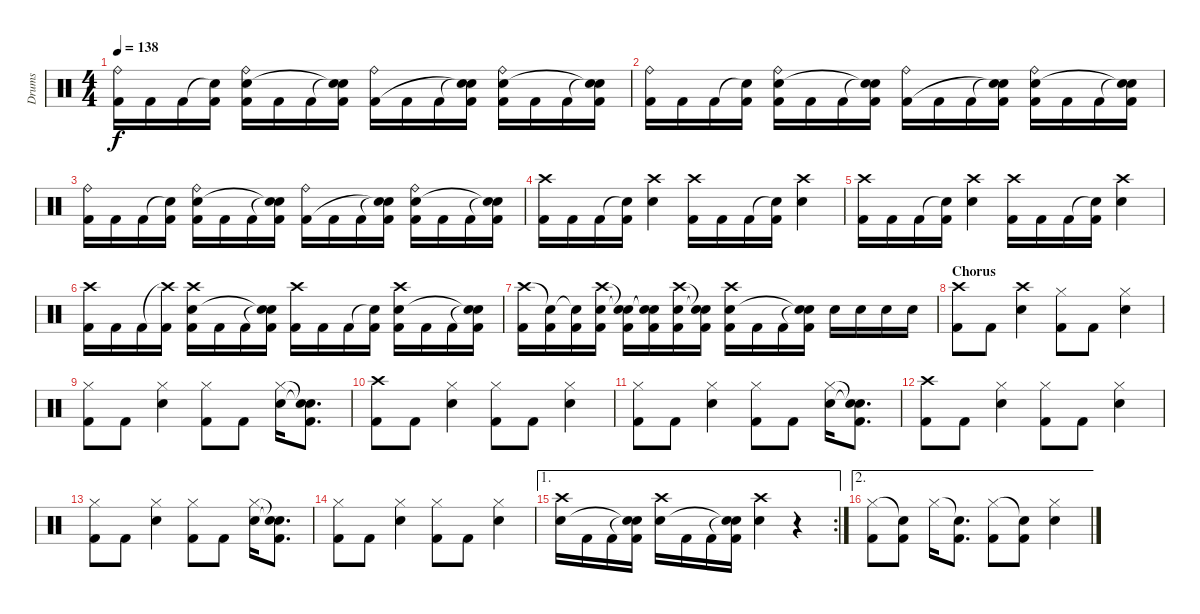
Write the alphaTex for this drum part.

\track ("Drums" "Drums") {instrument percussion}
\staff {score}
\articulation defaults
\ts (4 4)
\tempo 138
\clef neutral
\ks c
("Ride (bell)" "Kick (hit) 2").16{dy f} "Kick (hit) 2".16 "Kick (hit) 2".16 ("Snare (hit)"{t} "Kick (hit) 2").16 ("Ride (bell)" "Snare (hit) 2" "Kick (hit) 2").16 "Kick (hit) 2".16 "Kick (hit) 2".16 ("Snare (hit)"{t} "Snare (hit)"{t} "Kick (hit) 2").16 ("Ride (bell)" "Kick (hit) 2").16 "Kick (hit) 2".16 "Kick (hit) 2".16 ("Snare (hit)"{t} "Snare (hit)"{t} "Kick (hit) 2").16 ("Ride (bell)" "Snare (hit) 2" "Kick (hit) 2").16 "Kick (hit) 2".16 "Kick (hit) 2".16 ("Snare (hit)"{t} "Snare (hit)"{t} "Kick (hit) 2").16 |
("Ride (bell)" "Kick (hit) 2").16 "Kick (hit) 2".16 "Kick (hit) 2".16 ("Snare (hit)"{t} "Kick (hit) 2").16 ("Ride (bell)" "Snare (hit) 2" "Kick (hit) 2").16 "Kick (hit) 2".16 "Kick (hit) 2".16 ("Snare (hit)"{t} "Snare (hit)"{t} "Kick (hit) 2").16 ("Ride (bell)" "Kick (hit) 2").16 "Kick (hit) 2".16 "Kick (hit) 2".16 ("Snare (hit)"{t} "Snare (hit)"{t} "Kick (hit) 2").16 ("Ride (bell)" "Snare (hit) 2" "Kick (hit) 2").16 "Kick (hit) 2".16 "Kick (hit) 2".16 ("Snare (hit)"{t} "Snare (hit)"{t} "Kick (hit) 2").16 |
("Ride (bell)" "Kick (hit) 2").16 "Kick (hit) 2".16 "Kick (hit) 2".16 ("Snare (hit)"{t} "Kick (hit) 2").16 ("Ride (bell)" "Snare (hit) 2" "Kick (hit) 2").16 "Kick (hit) 2".16 "Kick (hit) 2".16 ("Snare (hit)"{t} "Snare (hit)"{t} "Kick (hit) 2").16 ("Ride (bell)" "Kick (hit) 2").16 "Kick (hit) 2".16 "Kick (hit) 2".16 ("Snare (hit)"{t} "Snare (hit)"{t} "Kick (hit) 2").16 ("Ride (bell)" "Snare (hit) 2" "Kick (hit) 2").16 "Kick (hit) 2".16 "Kick (hit) 2".16 ("Snare (hit)"{t} "Snare (hit)"{t} "Kick (hit) 2").16 |
("Crash high (hit)" "Kick (hit) 2").16 "Kick (hit) 2".16 "Kick (hit) 2".16 ("Snare (hit)"{t} "Kick (hit) 2").16 ("Crash high (hit)" "Snare (hit) 2").4 ("Crash high (hit)" "Kick (hit) 2").16 "Kick (hit) 2".16 "Kick (hit) 2".16 ("Snare (hit)"{t} "Kick (hit) 2").16 ("Crash high (hit)" "Snare (hit) 2").4 |
("Crash high (hit)" "Kick (hit) 2").16 "Kick (hit) 2".16 "Kick (hit) 2".16 ("Snare (hit)"{t} "Kick (hit) 2").16 ("Crash high (hit)" "Snare (hit) 2").4 ("Crash high (hit)" "Kick (hit) 2").16 "Kick (hit) 2".16 "Kick (hit) 2".16 ("Snare (hit)"{t} "Kick (hit) 2").16 ("Crash high (hit)" "Snare (hit) 2").4 |
("Crash high (hit)" "Kick (hit) 2").16 "Kick (hit) 2".16 "Kick (hit) 2".16 ("Crash high (hit)"{t} "Kick (hit) 2").16 ("Crash high (hit)" "Snare (hit) 2" "Kick (hit) 2").16 "Kick (hit) 2".16 "Kick (hit) 2".16 ("Snare (hit)"{t} "Snare (hit)"{t} "Kick (hit) 2").16 ("Crash high (hit)" "Kick (hit) 2").16 "Kick (hit) 2".16 "Kick (hit) 2".16 ("Snare (hit)"{t} "Kick (hit) 2").16 ("Crash high (hit)" "Snare (hit) 2" "Kick (hit) 2").16 "Kick (hit) 2".16 "Kick (hit) 2".16 ("Snare (hit)"{t} "Snare (hit)"{t} "Kick (hit) 2").16 |
("Crash high (hit)" "Kick (hit) 2").16 ("Snare (hit)"{t} "Kick (hit) 2").16 ("Snare (hit)"{t} "Kick (hit) 2").16 ("Crash high (hit)" "Snare (hit) 2" "Kick (hit) 2").16 ("Snare (hit)"{t} "Snare (hit)"{t} "Kick (hit) 2").16 ("Snare (hit)"{t} "Snare (hit)"{t} "Kick (hit) 2").16 ("Crash high (hit)" "Snare (hit) 2" "Kick (hit) 2").16 ("Snare (hit)"{t} "Snare (hit)"{t} "Kick (hit) 2").16 ("Crash high (hit)" "Snare (hit) 2" "Kick (hit) 2").16 "Kick (hit) 2".16 "Kick (hit) 2".16 ("Snare (hit)"{t} "Snare (hit)"{t} "Kick (hit) 2").16 "Snare (hit) 2".16 "Snare (hit) 2".16 "Snare (hit) 2".16 "Snare (hit) 2".16 |
\section ("" "Chorus")
("Crash high (hit)" "Kick (hit) 2").8 "Kick (hit) 2".8 ("Crash high (hit)" "Snare (hit) 2").4 ("Hi-Hat (closed)" "Kick (hit) 2").8 "Kick (hit) 2".8 ("Hi-Hat (closed)" "Snare (hit) 2").4 |
("Hi-Hat (closed)" "Kick (hit) 2").8 "Kick (hit) 2".8 ("Hi-Hat (closed)" "Snare (hit) 2").4 ("Hi-Hat (closed)" "Kick (hit) 2").8 "Kick (hit) 2".8 ("Hi-Hat (closed)" "Snare (hit) 2").16 ("Snare (hit)"{t} "Snare (hit)"{t} "Kick (hit) 2").8{d} |
("Crash high (hit)" "Kick (hit) 2").8 "Kick (hit) 2".8 ("Hi-Hat (closed)" "Snare (hit) 2").4 ("Hi-Hat (closed)" "Kick (hit) 2").8 "Kick (hit) 2".8 ("Hi-Hat (closed)" "Snare (hit) 2").4 |
("Hi-Hat (closed)" "Kick (hit) 2").8 "Kick (hit) 2".8 ("Hi-Hat (closed)" "Snare (hit) 2").4 ("Hi-Hat (closed)" "Kick (hit) 2").8 "Kick (hit) 2".8 ("Hi-Hat (closed)" "Snare (hit) 2").16 ("Snare (hit)"{t} "Snare (hit)"{t} "Kick (hit) 2").8{d} |
("Crash high (hit)" "Kick (hit) 2").8 "Kick (hit) 2".8 ("Hi-Hat (closed)" "Snare (hit) 2").4 ("Hi-Hat (closed)" "Kick (hit) 2").8 "Kick (hit) 2".8 ("Hi-Hat (closed)" "Snare (hit) 2").4 |
("Hi-Hat (closed)" "Kick (hit) 2").8 "Kick (hit) 2".8 ("Hi-Hat (closed)" "Snare (hit) 2").4 ("Hi-Hat (closed)" "Kick (hit) 2").8 "Kick (hit) 2".8 ("Hi-Hat (closed)" "Snare (hit) 2").16 ("Snare (hit)"{t} "Snare (hit)"{t} "Kick (hit) 2").8{d} |
("Hi-Hat (closed)" "Kick (hit) 2").8 "Kick (hit) 2".8 ("Hi-Hat (closed)" "Snare (hit) 2").4 ("Hi-Hat (closed)" "Kick (hit) 2").8 "Kick (hit) 2".8 ("Hi-Hat (closed)" "Snare (hit) 2").4 |
\ae 1
\rc 2
("Crash high (hit)" "Snare (hit) 2").16 "Kick (hit) 2".16 "Kick (hit) 2".16 ("Snare (hit)"{t} "Snare (hit)"{t} "Kick (hit) 2").16 ("Crash high (hit)" "Snare (hit) 2").16 "Kick (hit) 2".16 "Kick (hit) 2".16 ("Snare (hit)"{t} "Snare (hit)"{t} "Kick (hit) 2").16 ("Crash high (hit)" "Snare (hit) 2").4 r.4 |
\ae 2
("Hi-Hat (closed)" "Kick (hit) 2").8 ("Snare (hit)"{t} "Kick (hit) 2").8 "Hi-Hat (closed)".16 ("Snare (hit)"{t} "Kick (hit) 2").8{d} ("Hi-Hat (closed)" "Kick (hit) 2").8 ("Snare (hit)"{t} "Kick (hit) 2").8 ("Hi-Hat (closed)" "Snare (hit) 2").4
